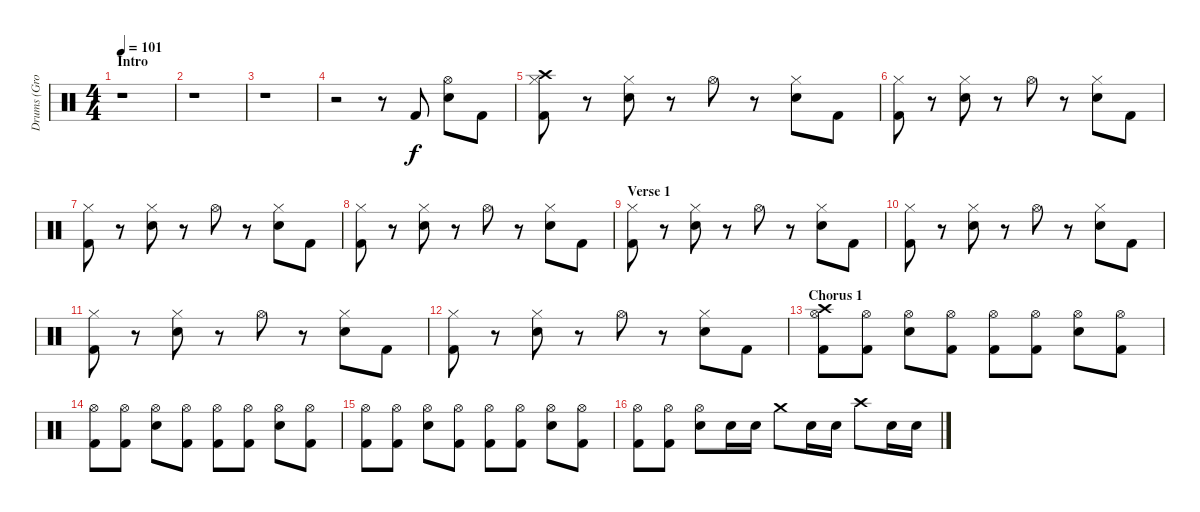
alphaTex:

\track ("Drums (Grohl)" "Drums (Gro") {instrument percussion}
\staff {score}
\articulation defaults
\ts (4 4)
\section ("" "Intro")
\tempo 101
\clef neutral
\ks c
r.1{dy f} |
r.1 |
r.1 |
r.2 r.8 "Kick (hit) 2".8 ("Hi-Hat (open)" "Snare (hit) 2").8 "Kick (hit) 2".8 |
("Crash high (hit)" "Hi-Hat (closed)" "Kick (hit) 2").8 r.8 ("Hi-Hat (closed)" "Snare (hit) 2").8 r.8 "Hi-Hat (open)".8 r.8 ("Hi-Hat (closed)" "Snare (hit) 2").8 "Kick (hit) 2".8 |
("Hi-Hat (closed)" "Kick (hit) 2").8 r.8 ("Hi-Hat (closed)" "Snare (hit) 2").8 r.8 "Hi-Hat (open)".8 r.8 ("Hi-Hat (closed)" "Snare (hit) 2").8 "Kick (hit) 2".8 |
("Hi-Hat (closed)" "Kick (hit) 2").8 r.8 ("Hi-Hat (closed)" "Snare (hit) 2").8 r.8 "Hi-Hat (open)".8 r.8 ("Hi-Hat (closed)" "Snare (hit) 2").8 "Kick (hit) 2".8 |
("Hi-Hat (closed)" "Kick (hit) 2").8 r.8 ("Hi-Hat (closed)" "Snare (hit) 2").8 r.8 "Hi-Hat (open)".8 r.8 ("Hi-Hat (closed)" "Snare (hit) 2").8 "Kick (hit) 2".8 |
\section ("" "Verse 1")
("Hi-Hat (closed)" "Kick (hit) 2").8 r.8 ("Hi-Hat (closed)" "Snare (hit) 2").8 r.8 "Hi-Hat (open)".8 r.8 ("Hi-Hat (closed)" "Snare (hit) 2").8 "Kick (hit) 2".8 |
("Hi-Hat (closed)" "Kick (hit) 2").8 r.8 ("Hi-Hat (closed)" "Snare (hit) 2").8 r.8 "Hi-Hat (open)".8 r.8 ("Hi-Hat (closed)" "Snare (hit) 2").8 "Kick (hit) 2".8 |
("Hi-Hat (closed)" "Kick (hit) 2").8 r.8 ("Hi-Hat (closed)" "Snare (hit) 2").8 r.8 "Hi-Hat (open)".8 r.8 ("Hi-Hat (closed)" "Snare (hit) 2").8 "Kick (hit) 2".8 |
("Hi-Hat (closed)" "Kick (hit) 2").8 r.8 ("Hi-Hat (closed)" "Snare (hit) 2").8 r.8 "Hi-Hat (open)".8 r.8 ("Hi-Hat (closed)" "Snare (hit) 2").8 "Kick (hit) 2".8 |
\section ("" "Chorus 1")
("Hi-Hat (open)" "Kick (hit) 2" "Crash high (hit)").8 ("Hi-Hat (open)" "Kick (hit) 2").8 ("Hi-Hat (open)" "Snare (hit) 2").8 ("Hi-Hat (open)" "Kick (hit) 2").8 ("Hi-Hat (open)" "Kick (hit) 2").8 ("Hi-Hat (open)" "Kick (hit) 2").8 ("Hi-Hat (open)" "Snare (hit) 2").8 ("Hi-Hat (open)" "Kick (hit) 2").8 |
("Hi-Hat (open)" "Kick (hit) 2").8 ("Hi-Hat (open)" "Kick (hit) 2").8 ("Hi-Hat (open)" "Snare (hit) 2").8 ("Hi-Hat (open)" "Kick (hit) 2").8 ("Hi-Hat (open)" "Kick (hit) 2").8 ("Hi-Hat (open)" "Kick (hit) 2").8 ("Hi-Hat (open)" "Snare (hit) 2").8 ("Hi-Hat (open)" "Kick (hit) 2").8 |
("Hi-Hat (open)" "Kick (hit) 2").8 ("Hi-Hat (open)" "Kick (hit) 2").8 ("Hi-Hat (open)" "Snare (hit) 2").8 ("Hi-Hat (open)" "Kick (hit) 2").8 ("Hi-Hat (open)" "Kick (hit) 2").8 ("Hi-Hat (open)" "Kick (hit) 2").8 ("Hi-Hat (open)" "Snare (hit) 2").8 ("Hi-Hat (open)" "Kick (hit) 2").8 |
("Hi-Hat (open)" "Kick (hit) 2").8 ("Hi-Hat (open)" "Kick (hit) 2").8 ("Hi-Hat (open)" "Snare (hit) 2").8 "Snare (hit) 2".16 "Snare (hit) 2".16 "Crash medium (hit)".8 "Snare (hit) 2".16 "Snare (hit) 2".16 "Crash high (hit)".8 "Snare (hit) 2".16 "Snare (hit) 2".16
